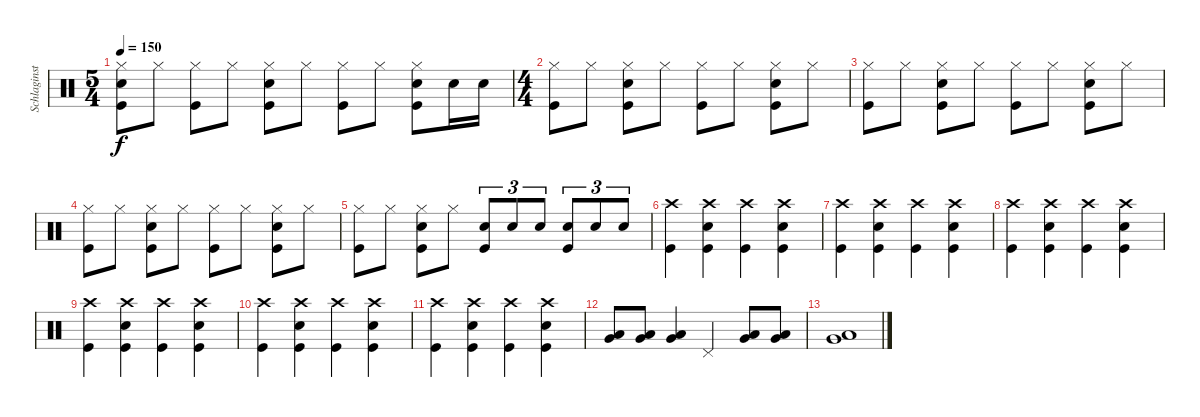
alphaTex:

\track ("Schlaginstrumente - Auswahl" "Schlaginst") {instrument percussion}
\staff {score}
\articulation defaults
\ts (5 4)
\tempo 150
\clef neutral
\ks c
("Hi-Hat (closed)" "Kick (hit)" "Snare (hit) 2").8{dy f} "Hi-Hat (closed)".8 ("Kick (hit)" "Hi-Hat (closed)").8 "Hi-Hat (closed)".8 ("Hi-Hat (closed)" "Kick (hit)" "Snare (hit) 2").8 "Hi-Hat (closed)".8 ("Hi-Hat (closed)" "Kick (hit)").8 "Hi-Hat (closed)".8 ("Hi-Hat (closed)" "Kick (hit)" "Snare (hit) 2").8 "Snare (hit) 2".16 "Snare (hit) 2".16 |
\ts (4 4)
("Kick (hit)" "Hi-Hat (closed)").8 "Hi-Hat (closed)".8 ("Hi-Hat (closed)" "Snare (hit) 2" "Kick (hit)").8 "Hi-Hat (closed)".8 ("Hi-Hat (closed)" "Kick (hit)").8 "Hi-Hat (closed)".8 ("Hi-Hat (closed)" "Snare (hit) 2" "Kick (hit)").8 "Hi-Hat (closed)".8 |
("Kick (hit)" "Hi-Hat (closed)").8 "Hi-Hat (closed)".8 ("Hi-Hat (closed)" "Snare (hit) 2" "Kick (hit)").8 "Hi-Hat (closed)".8 ("Hi-Hat (closed)" "Kick (hit)").8 "Hi-Hat (closed)".8 ("Hi-Hat (closed)" "Snare (hit) 2" "Kick (hit)").8 "Hi-Hat (closed)".8 |
("Kick (hit)" "Hi-Hat (closed)").8 "Hi-Hat (closed)".8 ("Hi-Hat (closed)" "Snare (hit) 2" "Kick (hit)").8 "Hi-Hat (closed)".8 ("Hi-Hat (closed)" "Kick (hit)").8 "Hi-Hat (closed)".8 ("Hi-Hat (closed)" "Snare (hit) 2" "Kick (hit)").8 "Hi-Hat (closed)".8 |
("Kick (hit)" "Hi-Hat (closed)").8 "Hi-Hat (closed)".8 ("Hi-Hat (closed)" "Snare (hit) 2" "Kick (hit)").8 "Hi-Hat (closed)".8 ("Snare (hit) 2" "Kick (hit)").8{tu (3 2)} "Snare (hit) 2".8{tu (3 2)} "Snare (hit) 2".8{tu (3 2)} ("Snare (hit) 2" "Kick (hit)").8{tu (3 2)} "Snare (hit) 2".8{tu (3 2)} "Snare (hit) 2".8{tu (3 2)} |
("Crash high (hit)" "Kick (hit)").4 ("Crash high (hit)" "Snare (hit) 2" "Kick (hit)").4 ("Crash high (hit)" "Kick (hit)").4 ("Crash high (hit)" "Snare (hit) 2" "Kick (hit)").4 |
("Crash high (hit)" "Kick (hit)").4 ("Crash high (hit)" "Snare (hit) 2" "Kick (hit)").4 ("Crash high (hit)" "Kick (hit)").4 ("Crash high (hit)" "Snare (hit) 2" "Kick (hit)").4 |
("Crash high (hit)" "Kick (hit)").4 ("Crash high (hit)" "Snare (hit) 2" "Kick (hit)").4 ("Crash high (hit)" "Kick (hit)").4 ("Crash high (hit)" "Snare (hit) 2" "Kick (hit)").4 |
("Crash high (hit)" "Kick (hit)").4 ("Crash high (hit)" "Snare (hit) 2" "Kick (hit)").4 ("Crash high (hit)" "Kick (hit)").4 ("Crash high (hit)" "Snare (hit) 2" "Kick (hit)").4 |
("Crash high (hit)" "Kick (hit)").4 ("Crash high (hit)" "Snare (hit) 2" "Kick (hit)").4 ("Crash high (hit)" "Kick (hit)").4 ("Crash high (hit)" "Snare (hit) 2" "Kick (hit)").4 |
("Crash high (hit)" "Kick (hit)").4 ("Crash high (hit)" "Snare (hit) 2" "Kick (hit)").4 ("Crash high (hit)" "Kick (hit)").4 ("Crash high (hit)" "Snare (hit) 2" "Kick (hit)").4 |
("Low Floor Tom (hit)" "Very Low Tom (hit)").8 ("Low Floor Tom (hit)" "Very Low Tom (hit)").8 ("Low Floor Tom (hit)" "Very Low Tom (hit)").4 "Pedal Hi-Hat (hit)".4 ("Low Floor Tom (hit)" "Very Low Tom (hit)").8 ("Low Floor Tom (hit)" "Very Low Tom (hit)").8 |
("Low Floor Tom (hit)" "Very Low Tom (hit)").1
